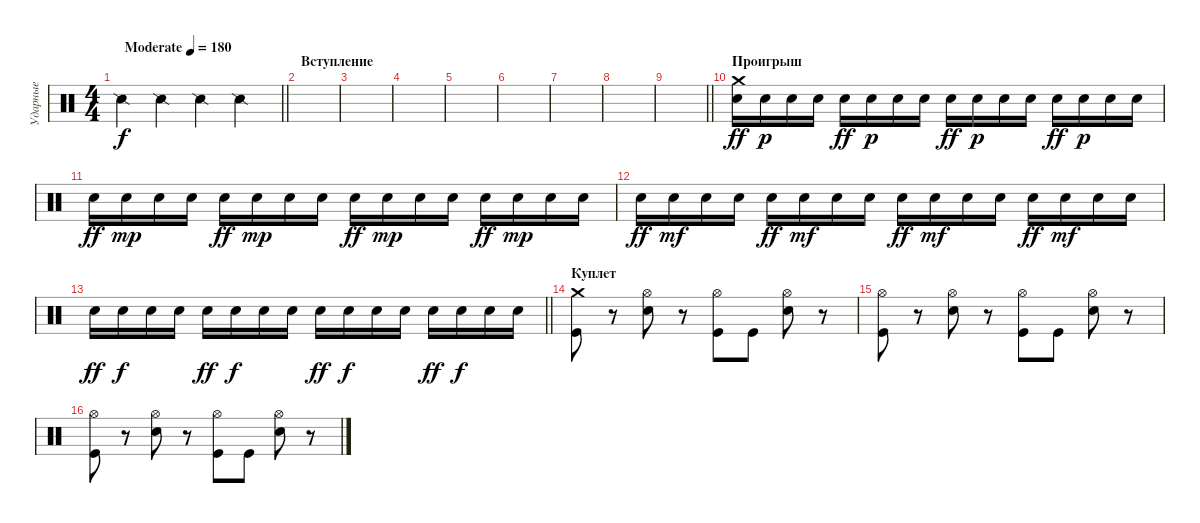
\track ("Ударные" "Ударные") {instrument percussion}
\staff {score}
\articulation defaults
\ts (4 4)
\tempo (180 "Moderate")
\clef neutral
\barLineRight lightlight
\ks c "Snare (side stick) 2".4{dy f} "Snare (side stick) 2".4 "Snare (side stick) 2".4 "Snare (side stick) 2".4
|
\section ("" "Вступление")
|
|
|
|
|
|
|
\barLineRight lightlight
|
\section ("" "Проигрыш")
("Crash medium (hit)" "Electric Snare (hit)").16{dy ff} "Electric Snare (hit)".16{dy p} "Electric Snare (hit)".16 "Electric Snare (hit)".16 "Electric Snare (hit)".16{dy ff} "Electric Snare (hit)".16{dy p} "Electric Snare (hit)".16 "Electric Snare (hit)".16 "Electric Snare (hit)".16{dy ff} "Electric Snare (hit)".16{dy p} "Electric Snare (hit)".16 "Electric Snare (hit)".16 "Electric Snare (hit)".16{dy ff} "Electric Snare (hit)".16{dy p} "Electric Snare (hit)".16 "Electric Snare (hit)".16 |
"Electric Snare (hit)".16{dy ff} "Electric Snare (hit)".16{dy mp} "Electric Snare (hit)".16 "Electric Snare (hit)".16 "Electric Snare (hit)".16{dy ff} "Electric Snare (hit)".16{dy mp} "Electric Snare (hit)".16 "Electric Snare (hit)".16 "Electric Snare (hit)".16{dy ff} "Electric Snare (hit)".16{dy mp} "Electric Snare (hit)".16 "Electric Snare (hit)".16 "Electric Snare (hit)".16{dy ff} "Electric Snare (hit)".16{dy mp} "Electric Snare (hit)".16 "Electric Snare (hit)".16 |
"Electric Snare (hit)".16{dy ff} "Electric Snare (hit)".16{dy mf} "Electric Snare (hit)".16 "Electric Snare (hit)".16 "Electric Snare (hit)".16{dy ff} "Electric Snare (hit)".16{dy mf} "Electric Snare (hit)".16 "Electric Snare (hit)".16 "Electric Snare (hit)".16{dy ff} "Electric Snare (hit)".16{dy mf} "Electric Snare (hit)".16 "Electric Snare (hit)".16 "Electric Snare (hit)".16{dy ff} "Electric Snare (hit)".16{dy mf} "Electric Snare (hit)".16 "Electric Snare (hit)".16 |
\barLineRight lightlight "Electric Snare (hit)".16{dy ff} "Electric Snare (hit)".16{dy f} "Electric Snare (hit)".16 "Electric Snare (hit)".16 "Electric Snare (hit)".16{dy ff} "Electric Snare (hit)".16{dy f} "Electric Snare (hit)".16 "Electric Snare (hit)".16 "Electric Snare (hit)".16{dy ff} "Electric Snare (hit)".16{dy f} "Electric Snare (hit)".16 "Electric Snare (hit)".16 "Electric Snare (hit)".16{dy ff} "Electric Snare (hit)".16{dy f} "Electric Snare (hit)".16 "Electric Snare (hit)".16
|
\section ("" "Куплет")
("Crash medium (hit)" "Kick (hit)").8 r.8 ("Hi-Hat (open)" "Electric Snare (hit)").8 r.8 ("Hi-Hat (open)" "Kick (hit)").8 "Kick (hit)".8 ("Hi-Hat (open)" "Electric Snare (hit)").8 r.8 |
("Hi-Hat (open)" "Kick (hit)").8 r.8 ("Hi-Hat (open)" "Electric Snare (hit)").8 r.8 ("Hi-Hat (open)" "Kick (hit)").8 "Kick (hit)".8 ("Hi-Hat (open)" "Electric Snare (hit)").8 r.8 |
("Hi-Hat (open)" "Kick (hit)").8 r.8 ("Hi-Hat (open)" "Electric Snare (hit)").8 r.8 ("Hi-Hat (open)" "Kick (hit)").8 "Kick (hit)".8 ("Hi-Hat (open)" "Electric Snare (hit)").8 r.8
